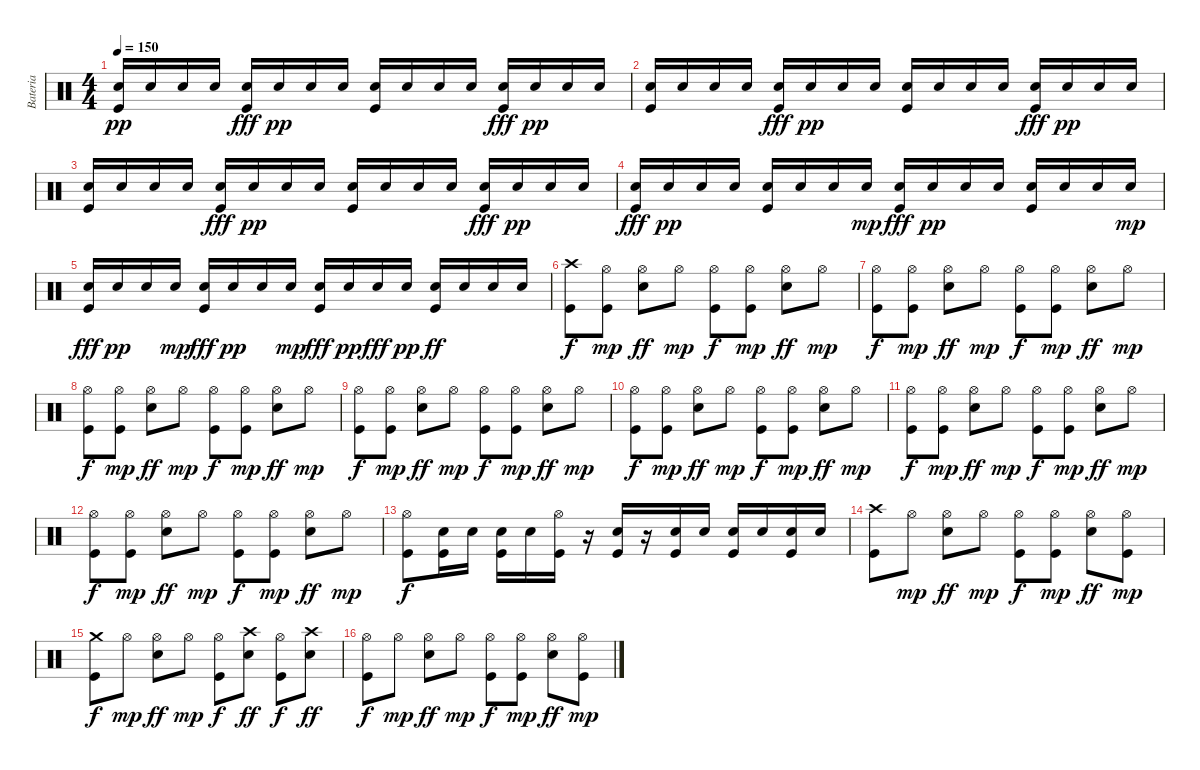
\track ("Bateria" "Bateria") {instrument percussion}
\staff {score}
\articulation defaults
\ts (4 4)
\tempo 150
\clef neutral
\ks c
("Electric Snare (hit)" "Kick (hit)").16{dy pp} "Electric Snare (hit)".16 "Electric Snare (hit)".16 "Electric Snare (hit)".16 ("Electric Snare (hit)" "Kick (hit)").16{dy fff} "Electric Snare (hit)".16{dy pp} "Electric Snare (hit)".16 "Electric Snare (hit)".16 ("Electric Snare (hit)" "Kick (hit)").16 "Electric Snare (hit)".16 "Electric Snare (hit)".16 "Electric Snare (hit)".16 ("Electric Snare (hit)" "Kick (hit)").16{dy fff} "Electric Snare (hit)".16{dy pp} "Electric Snare (hit)".16 "Electric Snare (hit)".16 |
("Electric Snare (hit)" "Kick (hit)").16 "Electric Snare (hit)".16 "Electric Snare (hit)".16 "Electric Snare (hit)".16 ("Electric Snare (hit)" "Kick (hit)").16{dy fff} "Electric Snare (hit)".16{dy pp} "Electric Snare (hit)".16 "Electric Snare (hit)".16 ("Electric Snare (hit)" "Kick (hit)").16 "Electric Snare (hit)".16 "Electric Snare (hit)".16 "Electric Snare (hit)".16 ("Electric Snare (hit)" "Kick (hit)").16{dy fff} "Electric Snare (hit)".16{dy pp} "Electric Snare (hit)".16 "Electric Snare (hit)".16 |
("Electric Snare (hit)" "Kick (hit)").16 "Electric Snare (hit)".16 "Electric Snare (hit)".16 "Electric Snare (hit)".16 ("Electric Snare (hit)" "Kick (hit)").16{dy fff} "Electric Snare (hit)".16{dy pp} "Electric Snare (hit)".16 "Electric Snare (hit)".16 ("Electric Snare (hit)" "Kick (hit)").16 "Electric Snare (hit)".16 "Electric Snare (hit)".16 "Electric Snare (hit)".16 ("Electric Snare (hit)" "Kick (hit)").16{dy fff} "Electric Snare (hit)".16{dy pp} "Electric Snare (hit)".16 "Electric Snare (hit)".16 |
("Electric Snare (hit)" "Kick (hit)").16{dy fff} "Electric Snare (hit)".16{dy pp} "Electric Snare (hit)".16 "Electric Snare (hit)".16 ("Electric Snare (hit)" "Kick (hit)").16 "Electric Snare (hit)".16 "Electric Snare (hit)".16 "Electric Snare (hit)".16{dy mp} ("Electric Snare (hit)" "Kick (hit)").16{dy fff} "Electric Snare (hit)".16{dy pp} "Electric Snare (hit)".16 "Electric Snare (hit)".16 ("Electric Snare (hit)" "Kick (hit)").16 "Electric Snare (hit)".16 "Electric Snare (hit)".16 "Electric Snare (hit)".16{dy mp} |
("Electric Snare (hit)" "Kick (hit)").16{dy fff} "Electric Snare (hit)".16{dy pp} "Electric Snare (hit)".16 "Electric Snare (hit)".16{dy mp} ("Electric Snare (hit)" "Kick (hit)").16{dy fff} "Electric Snare (hit)".16{dy pp} "Electric Snare (hit)".16 "Electric Snare (hit)".16{dy mp} ("Electric Snare (hit)" "Kick (hit)").16{dy fff} "Electric Snare (hit)".16{dy pp} "Electric Snare (hit)".16{dy fff} "Electric Snare (hit)".16{dy pp} ("Electric Snare (hit)" "Kick (hit)").16{dy ff} "Electric Snare (hit)".16 "Electric Snare (hit)".16 "Electric Snare (hit)".16 |
("Crash high (hit)" "Kick (hit)").8{dy f} ("Hi-Hat (open)" "Kick (hit)").8{dy mp} ("Hi-Hat (open)" "Electric Snare (hit)").8{dy ff} "Hi-Hat (open)".8{dy mp} ("Hi-Hat (open)" "Kick (hit)").8{dy f} ("Hi-Hat (open)" "Kick (hit)").8{dy mp} ("Hi-Hat (open)" "Electric Snare (hit)").8{dy ff} "Hi-Hat (open)".8{dy mp} |
("Hi-Hat (open)" "Kick (hit)").8{dy f} ("Hi-Hat (open)" "Kick (hit)").8{dy mp} ("Hi-Hat (open)" "Electric Snare (hit)").8{dy ff} "Hi-Hat (open)".8{dy mp} ("Hi-Hat (open)" "Kick (hit)").8{dy f} ("Hi-Hat (open)" "Kick (hit)").8{dy mp} ("Hi-Hat (open)" "Electric Snare (hit)").8{dy ff} "Hi-Hat (open)".8{dy mp} |
("Hi-Hat (open)" "Kick (hit)").8{dy f} ("Hi-Hat (open)" "Kick (hit)").8{dy mp} ("Hi-Hat (open)" "Electric Snare (hit)").8{dy ff} "Hi-Hat (open)".8{dy mp} ("Hi-Hat (open)" "Kick (hit)").8{dy f} ("Hi-Hat (open)" "Kick (hit)").8{dy mp} ("Hi-Hat (open)" "Electric Snare (hit)").8{dy ff} "Hi-Hat (open)".8{dy mp} |
("Hi-Hat (open)" "Kick (hit)").8{dy f} ("Hi-Hat (open)" "Kick (hit)").8{dy mp} ("Hi-Hat (open)" "Electric Snare (hit)").8{dy ff} "Hi-Hat (open)".8{dy mp} ("Hi-Hat (open)" "Kick (hit)").8{dy f} ("Hi-Hat (open)" "Kick (hit)").8{dy mp} ("Hi-Hat (open)" "Electric Snare (hit)").8{dy ff} "Hi-Hat (open)".8{dy mp} |
("Hi-Hat (open)" "Kick (hit)").8{dy f} ("Hi-Hat (open)" "Kick (hit)").8{dy mp} ("Hi-Hat (open)" "Electric Snare (hit)").8{dy ff} "Hi-Hat (open)".8{dy mp} ("Hi-Hat (open)" "Kick (hit)").8{dy f} ("Hi-Hat (open)" "Kick (hit)").8{dy mp} ("Hi-Hat (open)" "Electric Snare (hit)").8{dy ff} "Hi-Hat (open)".8{dy mp} |
("Hi-Hat (open)" "Kick (hit)").8{dy f} ("Hi-Hat (open)" "Kick (hit)").8{dy mp} ("Hi-Hat (open)" "Electric Snare (hit)").8{dy ff} "Hi-Hat (open)".8{dy mp} ("Hi-Hat (open)" "Kick (hit)").8{dy f} ("Hi-Hat (open)" "Kick (hit)").8{dy mp} ("Hi-Hat (open)" "Electric Snare (hit)").8{dy ff} "Hi-Hat (open)".8{dy mp} |
("Hi-Hat (open)" "Kick (hit)").8{dy f} ("Hi-Hat (open)" "Kick (hit)").8{dy mp} ("Hi-Hat (open)" "Electric Snare (hit)").8{dy ff} "Hi-Hat (open)".8{dy mp} ("Hi-Hat (open)" "Kick (hit)").8{dy f} ("Hi-Hat (open)" "Kick (hit)").8{dy mp} ("Hi-Hat (open)" "Electric Snare (hit)").8{dy ff} "Hi-Hat (open)".8{dy mp} |
("Hi-Hat (open)" "Kick (hit)").8{dy f} ("Electric Snare (hit)" "Kick (hit)").16 "Electric Snare (hit)".16 ("Electric Snare (hit)" "Kick (hit)").16 "Electric Snare (hit)".16 ("Hi-Hat (open)" "Kick (hit)").16 r.16 ("Electric Snare (hit)" "Kick (hit)").16 r.16 ("Electric Snare (hit)" "Kick (hit)").16 "Electric Snare (hit)".16 ("Electric Snare (hit)" "Kick (hit)").16 "Electric Snare (hit)".16 ("Electric Snare (hit)" "Kick (hit)").16 "Electric Snare (hit)".16 |
("Crash high (hit)" "Kick (hit)").8 "Hi-Hat (open)".8{dy mp} ("Hi-Hat (open)" "Electric Snare (hit)").8{dy ff} "Hi-Hat (open)".8{dy mp} ("Hi-Hat (open)" "Kick (hit)").8{dy f} ("Hi-Hat (open)" "Kick (hit)").8{dy mp} ("Hi-Hat (open)" "Electric Snare (hit)").8{dy ff} ("Hi-Hat (open)" "Kick (hit)").8{dy mp} |
("Crash medium (hit)" "Kick (hit)").8{dy f} "Hi-Hat (open)".8{dy mp} ("Hi-Hat (open)" "Electric Snare (hit)").8{dy ff} "Hi-Hat (open)".8{dy mp} ("Hi-Hat (open)" "Kick (hit)").8{dy f} ("Crash high (hit)" "Electric Snare (hit)").8{dy ff} ("Hi-Hat (open)" "Kick (hit)").8{dy f} ("Crash high (hit)" "Electric Snare (hit)").8{dy ff} |
("Hi-Hat (open)" "Kick (hit)").8{dy f} "Hi-Hat (open)".8{dy mp} ("Hi-Hat (open)" "Electric Snare (hit)").8{dy ff} "Hi-Hat (open)".8{dy mp} ("Hi-Hat (open)" "Kick (hit)").8{dy f} ("Hi-Hat (open)" "Kick (hit)").8{dy mp} ("Hi-Hat (open)" "Electric Snare (hit)").8{dy ff} ("Hi-Hat (open)" "Kick (hit)").8{dy mp}
